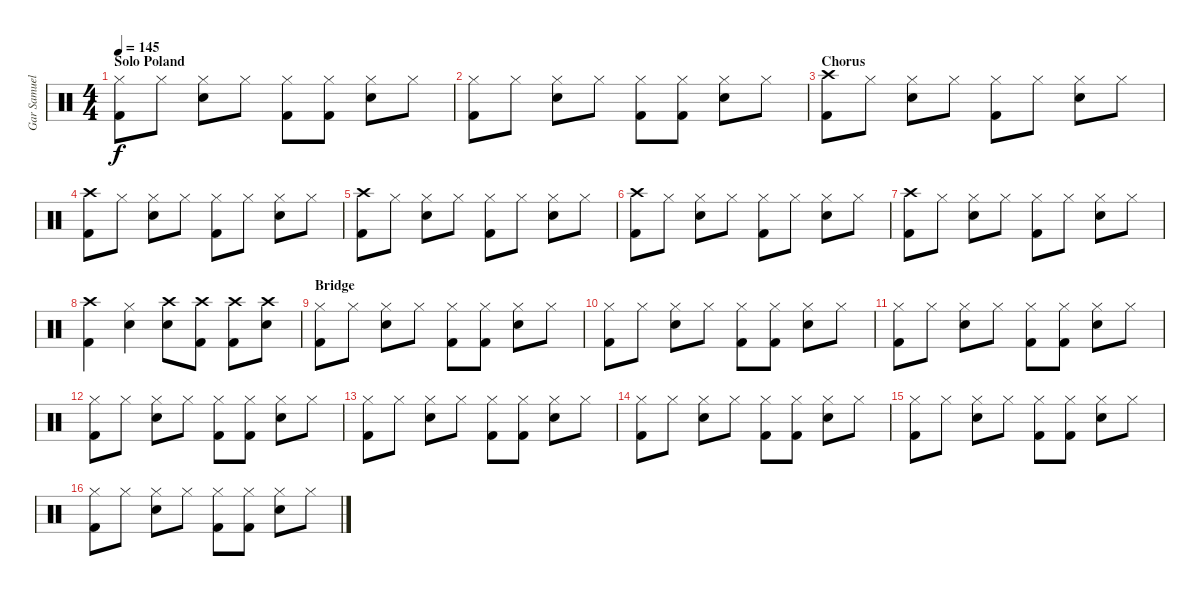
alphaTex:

\track ("Gar Samuelson (Drums)" "Gar Samuel") {instrument percussion}
\staff {score}
\articulation defaults
\ts (4 4)
\section ("" "Solo Poland")
\tempo 145
\clef neutral
\ks c
("Hi-Hat (closed)" "Kick (hit) 2").8{dy f} "Hi-Hat (closed)".8 ("Hi-Hat (closed)" "Electric Snare (hit)").8 "Hi-Hat (closed)".8 ("Hi-Hat (closed)" "Kick (hit) 2").8 ("Hi-Hat (closed)" "Kick (hit) 2").8 ("Hi-Hat (closed)" "Electric Snare (hit)").8 "Hi-Hat (closed)".8 |
("Hi-Hat (closed)" "Kick (hit) 2").8 "Hi-Hat (closed)".8 ("Hi-Hat (closed)" "Electric Snare (hit)").8 "Hi-Hat (closed)".8 ("Hi-Hat (closed)" "Kick (hit) 2").8 ("Hi-Hat (closed)" "Kick (hit) 2").8 ("Hi-Hat (closed)" "Electric Snare (hit)").8 "Hi-Hat (closed)".8 |
\section ("" "Chorus")
("Crash high (hit)" "Kick (hit) 2").8 "Hi-Hat (closed)".8 ("Hi-Hat (closed)" "Electric Snare (hit)").8 "Hi-Hat (closed)".8 ("Hi-Hat (closed)" "Kick (hit) 2").8 "Hi-Hat (closed)".8 ("Hi-Hat (closed)" "Electric Snare (hit)").8 "Hi-Hat (closed)".8 |
("Crash high (hit)" "Kick (hit) 2").8 "Hi-Hat (closed)".8 ("Hi-Hat (closed)" "Electric Snare (hit)").8 "Hi-Hat (closed)".8 ("Hi-Hat (closed)" "Kick (hit) 2").8 "Hi-Hat (closed)".8 ("Hi-Hat (closed)" "Electric Snare (hit)").8 "Hi-Hat (closed)".8 |
("Crash high (hit)" "Kick (hit) 2").8 "Hi-Hat (closed)".8 ("Hi-Hat (closed)" "Electric Snare (hit)").8 "Hi-Hat (closed)".8 ("Hi-Hat (closed)" "Kick (hit) 2").8 "Hi-Hat (closed)".8 ("Hi-Hat (closed)" "Electric Snare (hit)").8 "Hi-Hat (closed)".8 |
("Crash high (hit)" "Kick (hit) 2").8 "Hi-Hat (closed)".8 ("Hi-Hat (closed)" "Electric Snare (hit)").8 "Hi-Hat (closed)".8 ("Hi-Hat (closed)" "Kick (hit) 2").8 "Hi-Hat (closed)".8 ("Hi-Hat (closed)" "Electric Snare (hit)").8 "Hi-Hat (closed)".8 |
("Crash high (hit)" "Kick (hit) 2").8 "Hi-Hat (closed)".8 ("Hi-Hat (closed)" "Electric Snare (hit)").8 "Hi-Hat (closed)".8 ("Hi-Hat (closed)" "Kick (hit) 2").8 "Hi-Hat (closed)".8 ("Hi-Hat (closed)" "Electric Snare (hit)").8 "Hi-Hat (closed)".8 |
("Crash high (hit)" "Kick (hit) 2").4 ("Hi-Hat (closed)" "Electric Snare (hit)").4 ("Crash high (hit)" "Electric Snare (hit)").8 ("Crash high (hit)" "Kick (hit) 2").8 ("Crash high (hit)" "Kick (hit) 2").8 ("Crash high (hit)" "Electric Snare (hit)").8 |
\section ("" "Bridge")
("Hi-Hat (closed)" "Kick (hit) 2").8 "Hi-Hat (closed)".8 ("Hi-Hat (closed)" "Electric Snare (hit)").8 "Hi-Hat (closed)".8 ("Hi-Hat (closed)" "Kick (hit) 2").8 ("Hi-Hat (closed)" "Kick (hit) 2").8 ("Hi-Hat (closed)" "Electric Snare (hit)").8 "Hi-Hat (closed)".8 |
("Hi-Hat (closed)" "Kick (hit) 2").8 "Hi-Hat (closed)".8 ("Hi-Hat (closed)" "Electric Snare (hit)").8 "Hi-Hat (closed)".8 ("Hi-Hat (closed)" "Kick (hit) 2").8 ("Hi-Hat (closed)" "Kick (hit) 2").8 ("Hi-Hat (closed)" "Electric Snare (hit)").8 "Hi-Hat (closed)".8 |
("Hi-Hat (closed)" "Kick (hit) 2").8 "Hi-Hat (closed)".8 ("Hi-Hat (closed)" "Electric Snare (hit)").8 "Hi-Hat (closed)".8 ("Hi-Hat (closed)" "Kick (hit) 2").8 ("Hi-Hat (closed)" "Kick (hit) 2").8 ("Hi-Hat (closed)" "Electric Snare (hit)").8 "Hi-Hat (closed)".8 |
("Hi-Hat (closed)" "Kick (hit) 2").8 "Hi-Hat (closed)".8 ("Hi-Hat (closed)" "Electric Snare (hit)").8 "Hi-Hat (closed)".8 ("Hi-Hat (closed)" "Kick (hit) 2").8 ("Hi-Hat (closed)" "Kick (hit) 2").8 ("Hi-Hat (closed)" "Electric Snare (hit)").8 "Hi-Hat (closed)".8 |
("Hi-Hat (closed)" "Kick (hit) 2").8 "Hi-Hat (closed)".8 ("Hi-Hat (closed)" "Electric Snare (hit)").8 "Hi-Hat (closed)".8 ("Hi-Hat (closed)" "Kick (hit) 2").8 ("Hi-Hat (closed)" "Kick (hit) 2").8 ("Hi-Hat (closed)" "Electric Snare (hit)").8 "Hi-Hat (closed)".8 |
("Hi-Hat (closed)" "Kick (hit) 2").8 "Hi-Hat (closed)".8 ("Hi-Hat (closed)" "Electric Snare (hit)").8 "Hi-Hat (closed)".8 ("Hi-Hat (closed)" "Kick (hit) 2").8 ("Hi-Hat (closed)" "Kick (hit) 2").8 ("Hi-Hat (closed)" "Electric Snare (hit)").8 "Hi-Hat (closed)".8 |
("Hi-Hat (closed)" "Kick (hit) 2").8 "Hi-Hat (closed)".8 ("Hi-Hat (closed)" "Electric Snare (hit)").8 "Hi-Hat (closed)".8 ("Hi-Hat (closed)" "Kick (hit) 2").8 ("Hi-Hat (closed)" "Kick (hit) 2").8 ("Hi-Hat (closed)" "Electric Snare (hit)").8 "Hi-Hat (closed)".8 |
("Hi-Hat (closed)" "Kick (hit) 2").8 "Hi-Hat (closed)".8 ("Hi-Hat (closed)" "Electric Snare (hit)").8 "Hi-Hat (closed)".8 ("Hi-Hat (closed)" "Kick (hit) 2").8 ("Hi-Hat (closed)" "Kick (hit) 2").8 ("Hi-Hat (closed)" "Electric Snare (hit)").8 "Hi-Hat (closed)".8
